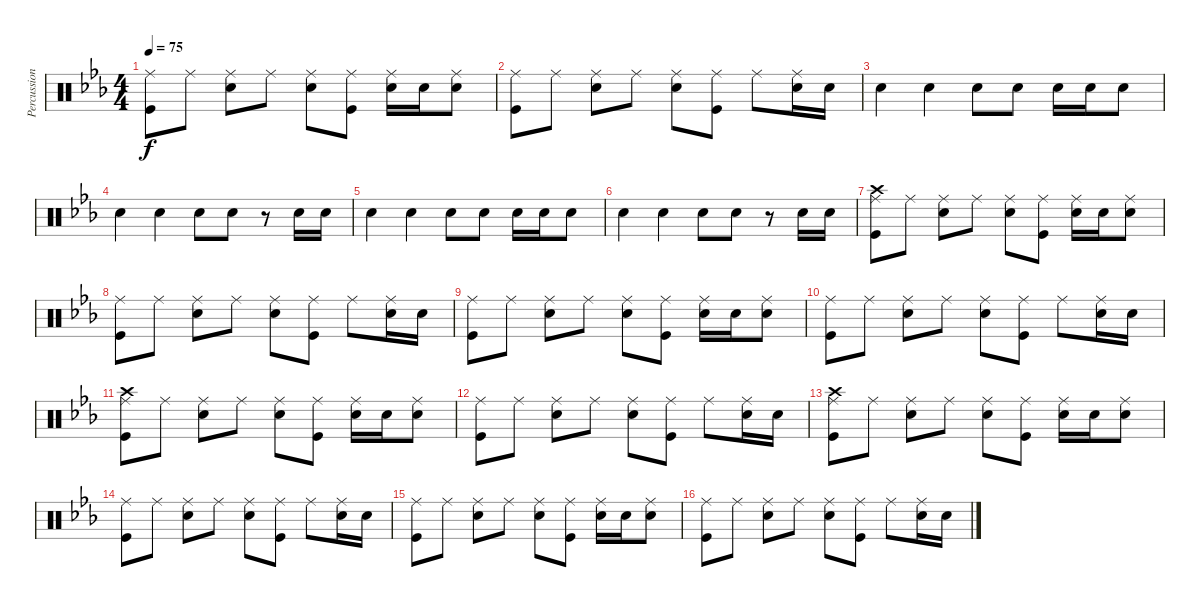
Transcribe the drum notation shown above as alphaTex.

\track ("Percussion" "Percussion") {instrument percussion}
\staff {score}
\articulation defaults
\ts (4 4)
\tempo 75
\clef neutral
\ks cminor
("Ride (middle)" "Kick (hit)").8{dy f} "Ride (middle)".8 ("Ride (middle)" "Snare (hit) 2").8 "Ride (middle)".8 ("Ride (middle)" "Snare (hit) 2").8 ("Ride (middle)" "Kick (hit)").8 ("Ride (middle)" "Snare (hit) 2").16 "Snare (hit) 2".16 ("Ride (middle)" "Snare (hit) 2").8 |
("Ride (middle)" "Kick (hit)").8 "Ride (middle)".8 ("Ride (middle)" "Snare (hit) 2").8 "Ride (middle)".8 ("Ride (middle)" "Snare (hit) 2").8 ("Ride (middle)" "Kick (hit)").8 "Ride (middle)".8 ("Ride (middle)" "Snare (hit) 2").16 "Snare (hit) 2".16 |
"Snare (hit) 2".4 "Snare (hit) 2".4 "Snare (hit) 2".8 "Snare (hit) 2".8 "Snare (hit) 2".16 "Snare (hit) 2".16 "Snare (hit) 2".8 |
"Snare (hit) 2".4 "Snare (hit) 2".4 "Snare (hit) 2".8 "Snare (hit) 2".8 r.8 "Snare (hit) 2".16 "Snare (hit) 2".16 |
"Snare (hit) 2".4 "Snare (hit) 2".4 "Snare (hit) 2".8 "Snare (hit) 2".8 "Snare (hit) 2".16 "Snare (hit) 2".16 "Snare (hit) 2".8 |
"Snare (hit) 2".4 "Snare (hit) 2".4 "Snare (hit) 2".8 "Snare (hit) 2".8 r.8 "Snare (hit) 2".16 "Snare (hit) 2".16 |
("Crash high (hit)" "Ride (middle)" "Kick (hit)").8 "Ride (middle)".8 ("Ride (middle)" "Snare (hit) 2").8 "Ride (middle)".8 ("Ride (middle)" "Snare (hit) 2").8 ("Ride (middle)" "Kick (hit)").8 ("Ride (middle)" "Snare (hit) 2").16 "Snare (hit) 2".16 ("Ride (middle)" "Snare (hit) 2").8 |
("Ride (middle)" "Kick (hit)").8 "Ride (middle)".8 ("Ride (middle)" "Snare (hit) 2").8 "Ride (middle)".8 ("Ride (middle)" "Snare (hit) 2").8 ("Ride (middle)" "Kick (hit)").8 "Ride (middle)".8 ("Ride (middle)" "Snare (hit) 2").16 "Snare (hit) 2".16 |
("Ride (middle)" "Kick (hit)").8 "Ride (middle)".8 ("Ride (middle)" "Snare (hit) 2").8 "Ride (middle)".8 ("Ride (middle)" "Snare (hit) 2").8 ("Ride (middle)" "Kick (hit)").8 ("Ride (middle)" "Snare (hit) 2").16 "Snare (hit) 2".16 ("Ride (middle)" "Snare (hit) 2").8 |
("Ride (middle)" "Kick (hit)").8 "Ride (middle)".8 ("Ride (middle)" "Snare (hit) 2").8 "Ride (middle)".8 ("Ride (middle)" "Snare (hit) 2").8 ("Ride (middle)" "Kick (hit)").8 "Ride (middle)".8 ("Ride (middle)" "Snare (hit) 2").16 "Snare (hit) 2".16 |
("Crash high (hit)" "Ride (middle)" "Kick (hit)").8 "Ride (middle)".8 ("Ride (middle)" "Snare (hit) 2").8 "Ride (middle)".8 ("Ride (middle)" "Snare (hit) 2").8 ("Ride (middle)" "Kick (hit)").8 ("Ride (middle)" "Snare (hit) 2").16 "Snare (hit) 2".16 ("Ride (middle)" "Snare (hit) 2").8 |
("Ride (middle)" "Kick (hit)").8 "Ride (middle)".8 ("Ride (middle)" "Snare (hit) 2").8 "Ride (middle)".8 ("Ride (middle)" "Snare (hit) 2").8 ("Ride (middle)" "Kick (hit)").8 "Ride (middle)".8 ("Ride (middle)" "Snare (hit) 2").16 "Snare (hit) 2".16 |
("Crash high (hit)" "Ride (middle)" "Kick (hit)").8 "Ride (middle)".8 ("Ride (middle)" "Snare (hit) 2").8 "Ride (middle)".8 ("Ride (middle)" "Snare (hit) 2").8 ("Ride (middle)" "Kick (hit)").8 ("Ride (middle)" "Snare (hit) 2").16 "Snare (hit) 2".16 ("Ride (middle)" "Snare (hit) 2").8 |
("Ride (middle)" "Kick (hit)").8 "Ride (middle)".8 ("Ride (middle)" "Snare (hit) 2").8 "Ride (middle)".8 ("Ride (middle)" "Snare (hit) 2").8 ("Ride (middle)" "Kick (hit)").8 "Ride (middle)".8 ("Ride (middle)" "Snare (hit) 2").16 "Snare (hit) 2".16 |
("Ride (middle)" "Kick (hit)").8 "Ride (middle)".8 ("Ride (middle)" "Snare (hit) 2").8 "Ride (middle)".8 ("Ride (middle)" "Snare (hit) 2").8 ("Ride (middle)" "Kick (hit)").8 ("Ride (middle)" "Snare (hit) 2").16 "Snare (hit) 2".16 ("Ride (middle)" "Snare (hit) 2").8 |
("Ride (middle)" "Kick (hit)").8 "Ride (middle)".8 ("Ride (middle)" "Snare (hit) 2").8 "Ride (middle)".8 ("Ride (middle)" "Snare (hit) 2").8 ("Ride (middle)" "Kick (hit)").8 "Ride (middle)".8 ("Ride (middle)" "Snare (hit) 2").16 "Snare (hit) 2".16
